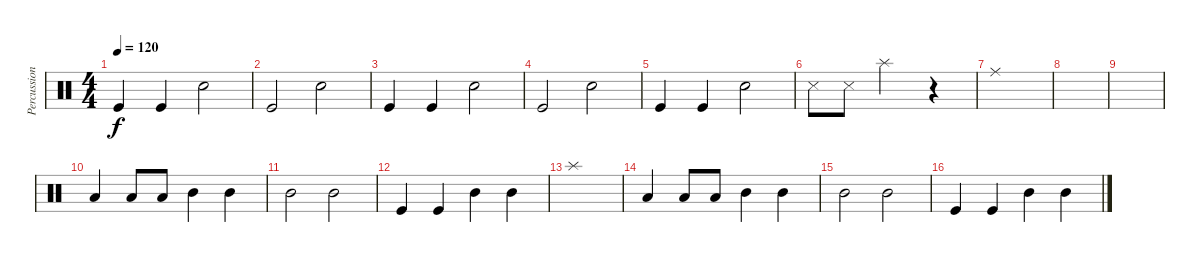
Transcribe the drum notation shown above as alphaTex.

\track ("Percussion" "Percussion") {instrument percussion}
\staff {score}
\articulation defaults
\ts (4 4)
\tempo 120
\clef neutral
\ks c "Kick (hit)".4{dy f} "Kick (hit)".4 "Snare (hit) 2".2
|
"Kick (hit)".2 "Snare (hit) 2".2 |
"Kick (hit)".4 "Kick (hit)".4 "Snare (hit) 2".2 |
"Kick (hit)".2 "Snare (hit) 2".2 |
"Kick (hit)".4 "Kick (hit)".4 "Snare (hit) 2".2 |
"Snare (side stick) 3".8 "Snare (side stick) 3".8 "Splash (hit)".2 r.4 |
"Ride (middle)".1 |
|
|
"Low Tom (hit)".4 "Low Tom (hit)".8 "Low Tom (hit)".8 "Mid Tom (hit)".4 "Mid Tom (hit)".4 |
"Mid Tom (hit)".2 "Mid Tom (hit)".2 |
"Kick (hit)".4 "Kick (hit)".4 "Mid Tom (hit)".4 "Mid Tom (hit)".4 |
"Splash (hit)".1 |
"Low Tom (hit)".4 "Low Tom (hit)".8 "Low Tom (hit)".8 "Mid Tom (hit)".4 "Mid Tom (hit)".4 |
"Mid Tom (hit)".2 "Mid Tom (hit)".2 |
"Kick (hit)".4 "Kick (hit)".4 "Mid Tom (hit)".4 "Mid Tom (hit)".4
